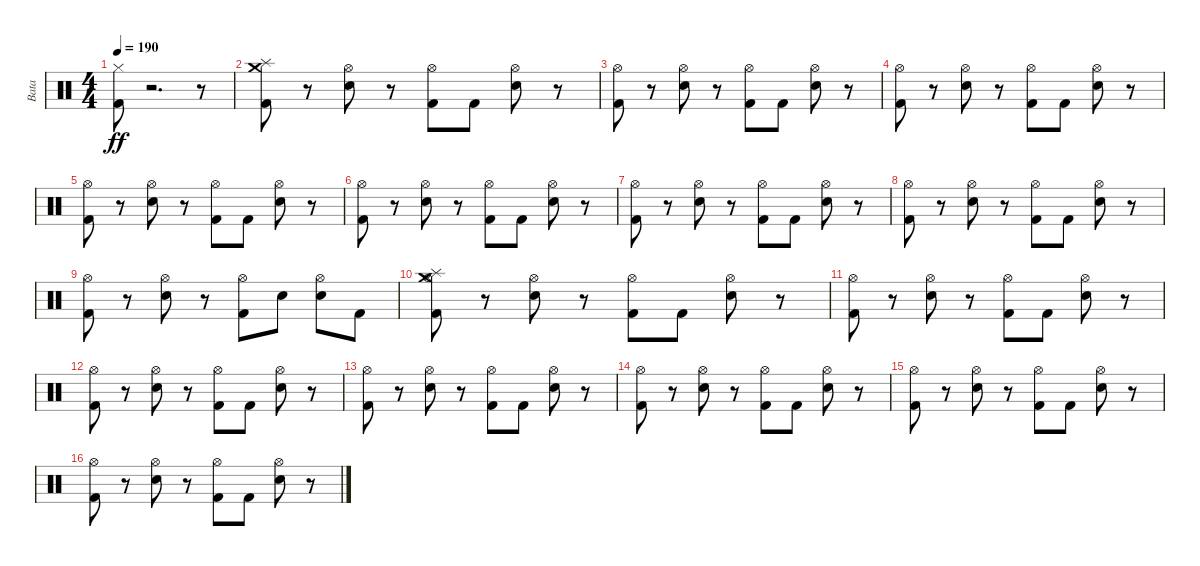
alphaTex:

\track ("Bata" "Bata") {instrument percussion}
\staff {score}
\articulation defaults
\ts (4 4)
\tempo 190
\clef neutral
\ks c
("Hi-Hat (closed)" "Kick (hit) 2").8{dy ff} r.2{d} r.8 |
("Kick (hit) 2" "Splash (hit)" "Crash medium (hit)").8 r.8 ("Hi-Hat (open)" "Snare (hit) 2").8 r.8 ("Hi-Hat (open)" "Kick (hit) 2").8 "Kick (hit) 2".8 ("Snare (hit) 2" "Hi-Hat (open)").8 r.8 |
("Hi-Hat (open)" "Kick (hit) 2").8 r.8 ("Hi-Hat (open)" "Snare (hit) 2").8 r.8 ("Kick (hit) 2" "Hi-Hat (open)").8 "Kick (hit) 2".8 ("Hi-Hat (open)" "Snare (hit) 2").8 r.8 |
("Hi-Hat (open)" "Kick (hit) 2").8 r.8 ("Snare (hit) 2" "Hi-Hat (open)").8 r.8 ("Hi-Hat (open)" "Kick (hit) 2").8 "Kick (hit) 2".8 ("Hi-Hat (open)" "Snare (hit) 2").8 r.8 |
("Hi-Hat (open)" "Kick (hit) 2").8 r.8 ("Snare (hit) 2" "Hi-Hat (open)").8 r.8 ("Hi-Hat (open)" "Kick (hit) 2").8 "Kick (hit) 2".8 ("Hi-Hat (open)" "Snare (hit) 2").8 r.8 |
("Kick (hit) 2" "Hi-Hat (open)").8 r.8 ("Hi-Hat (open)" "Snare (hit) 2").8 r.8 ("Hi-Hat (open)" "Kick (hit) 2").8 "Kick (hit) 2".8 ("Snare (hit) 2" "Hi-Hat (open)").8 r.8 |
("Kick (hit) 2" "Hi-Hat (open)").8 r.8 ("Hi-Hat (open)" "Snare (hit) 2").8 r.8 ("Kick (hit) 2" "Hi-Hat (open)").8 "Kick (hit) 2".8 ("Snare (hit) 2" "Hi-Hat (open)").8 r.8 |
("Hi-Hat (open)" "Kick (hit) 2").8 r.8 ("Hi-Hat (open)" "Snare (hit) 2").8 r.8 ("Kick (hit) 2" "Hi-Hat (open)").8 "Kick (hit) 2".8 ("Hi-Hat (open)" "Snare (hit) 2").8 r.8 |
("Hi-Hat (open)" "Kick (hit) 2").8 r.8 ("Snare (hit) 2" "Hi-Hat (open)").8 r.8 ("Kick (hit) 2" "Hi-Hat (open)").8 "Snare (hit) 2".8 ("Snare (hit) 2" "Hi-Hat (open)").8 "Kick (hit) 2".8 |
("Hi-Hat (open)" "Kick (hit) 2" "Crash medium (hit)" "Splash (hit)").8 r.8 ("Hi-Hat (open)" "Snare (hit) 2").8 r.8 ("Kick (hit) 2" "Hi-Hat (open)").8 "Kick (hit) 2".8 ("Hi-Hat (open)" "Snare (hit) 2").8 r.8 |
("Hi-Hat (open)" "Kick (hit) 2").8 r.8 ("Hi-Hat (open)" "Snare (hit) 2").8 r.8 ("Hi-Hat (open)" "Kick (hit) 2").8 "Kick (hit) 2".8 ("Hi-Hat (open)" "Snare (hit) 2").8 r.8 |
("Hi-Hat (open)" "Kick (hit) 2").8 r.8 ("Snare (hit) 2" "Hi-Hat (open)").8 r.8 ("Hi-Hat (open)" "Kick (hit) 2").8 "Kick (hit) 2".8 ("Hi-Hat (open)" "Snare (hit) 2").8 r.8 |
("Kick (hit) 2" "Hi-Hat (open)").8 r.8 ("Hi-Hat (open)" "Snare (hit) 2").8 r.8 ("Hi-Hat (open)" "Kick (hit) 2").8 "Kick (hit) 2".8 ("Hi-Hat (open)" "Snare (hit) 2").8 r.8 |
("Hi-Hat (open)" "Kick (hit) 2").8 r.8 ("Hi-Hat (open)" "Snare (hit) 2").8 r.8 ("Hi-Hat (open)" "Kick (hit) 2").8 "Kick (hit) 2".8 ("Hi-Hat (open)" "Snare (hit) 2").8 r.8 |
("Hi-Hat (open)" "Kick (hit) 2").8 r.8 ("Hi-Hat (open)" "Snare (hit) 2").8 r.8 ("Hi-Hat (open)" "Kick (hit) 2").8 "Kick (hit) 2".8 ("Hi-Hat (open)" "Snare (hit) 2").8 r.8 |
("Hi-Hat (open)" "Kick (hit) 2").8 r.8 ("Hi-Hat (open)" "Snare (hit) 2").8 r.8 ("Hi-Hat (open)" "Kick (hit) 2").8 "Kick (hit) 2".8 ("Hi-Hat (open)" "Snare (hit) 2").8 r.8
